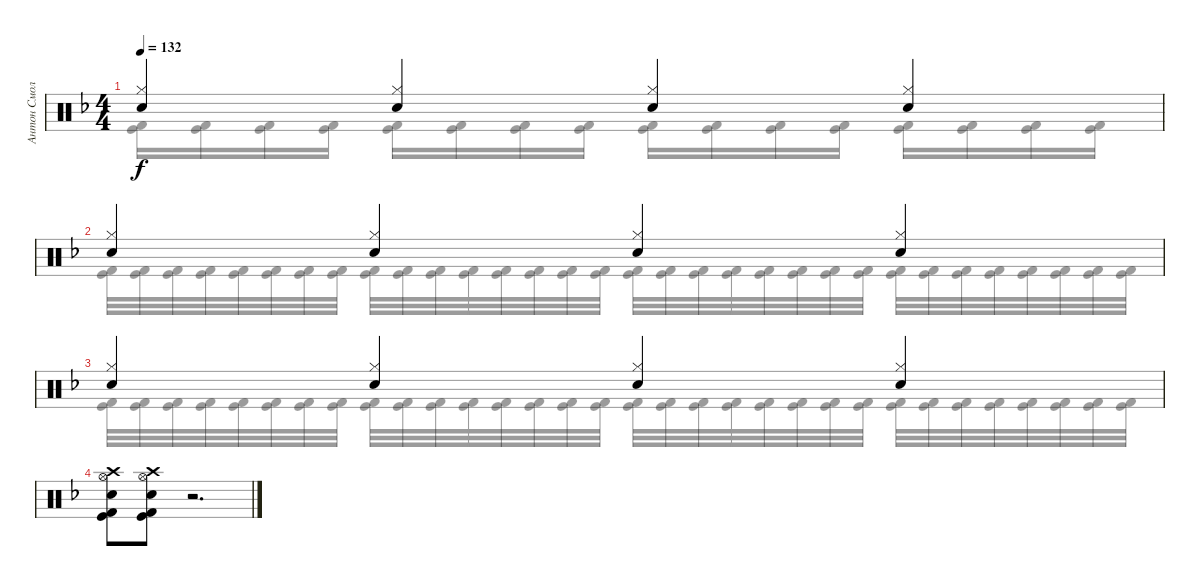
\track ("Антон Смольянин" "Антон Смол") {instrument percussion}
\staff {score}
\articulation defaults
\voice
\ts (4 4)
\tempo 132
\clef neutral
\ks f
("Hi-Hat (closed)" "Snare (hit) 2").4{dy f} ("Hi-Hat (closed)" "Snare (hit) 2").4 ("Hi-Hat (closed)" "Snare (hit) 2").4 ("Hi-Hat (closed)" "Snare (hit) 2").4 |
("Hi-Hat (closed)" "Snare (hit) 2").4 ("Hi-Hat (closed)" "Snare (hit) 2").4 ("Hi-Hat (closed)" "Snare (hit) 2").4 ("Hi-Hat (closed)" "Snare (hit) 2").4 |
("Hi-Hat (closed)" "Snare (hit) 2").4 ("Hi-Hat (closed)" "Snare (hit) 2").4 ("Hi-Hat (closed)" "Snare (hit) 2").4 ("Hi-Hat (closed)" "Snare (hit) 2").4 |
("Kick (hit) 2" "Kick (hit)" "Snare (hit) 2" "Crash high (hit)" "Hi-Hat (open)").8 ("Kick (hit) 2" "Kick (hit)" "Snare (hit) 2" "Crash high (hit)" "Hi-Hat (open)").8 r.2{d}
\voice
\clef neutral
\ottava regular
\simile none
\ks f
("Kick (hit) 2" "Kick (hit)").16{dy f} ("Kick (hit) 2" "Kick (hit)").16 ("Kick (hit) 2" "Kick (hit)").16 ("Kick (hit) 2" "Kick (hit)").16 ("Kick (hit) 2" "Kick (hit)").16 ("Kick (hit) 2" "Kick (hit)").16 ("Kick (hit) 2" "Kick (hit)").16 ("Kick (hit) 2" "Kick (hit)").16 ("Kick (hit) 2" "Kick (hit)").16 ("Kick (hit) 2" "Kick (hit)").16 ("Kick (hit) 2" "Kick (hit)").16 ("Kick (hit) 2" "Kick (hit)").16 ("Kick (hit) 2" "Kick (hit)").16 ("Kick (hit) 2" "Kick (hit)").16 ("Kick (hit) 2" "Kick (hit)").16 ("Kick (hit) 2" "Kick (hit)").16 |
("Kick (hit) 2" "Kick (hit)").32 ("Kick (hit) 2" "Kick (hit)").32 ("Kick (hit) 2" "Kick (hit)").32 ("Kick (hit) 2" "Kick (hit)").32 ("Kick (hit) 2" "Kick (hit)").32 ("Kick (hit) 2" "Kick (hit)").32 ("Kick (hit) 2" "Kick (hit)").32 ("Kick (hit) 2" "Kick (hit)").32 ("Kick (hit) 2" "Kick (hit)").32 ("Kick (hit) 2" "Kick (hit)").32 ("Kick (hit) 2" "Kick (hit)").32 ("Kick (hit) 2" "Kick (hit)").32 ("Kick (hit) 2" "Kick (hit)").32 ("Kick (hit) 2" "Kick (hit)").32 ("Kick (hit) 2" "Kick (hit)").32 ("Kick (hit) 2" "Kick (hit)").32 ("Kick (hit) 2" "Kick (hit)").32 ("Kick (hit) 2" "Kick (hit)").32 ("Kick (hit) 2" "Kick (hit)").32 ("Kick (hit) 2" "Kick (hit)").32 ("Kick (hit) 2" "Kick (hit)").32 ("Kick (hit) 2" "Kick (hit)").32 ("Kick (hit) 2" "Kick (hit)").32 ("Kick (hit) 2" "Kick (hit)").32 ("Kick (hit) 2" "Kick (hit)").32 ("Kick (hit) 2" "Kick (hit)").32 ("Kick (hit) 2" "Kick (hit)").32 ("Kick (hit) 2" "Kick (hit)").32 ("Kick (hit) 2" "Kick (hit)").32 ("Kick (hit) 2" "Kick (hit)").32 ("Kick (hit) 2" "Kick (hit)").32 ("Kick (hit) 2" "Kick (hit)").32 |
("Kick (hit) 2" "Kick (hit)").32 ("Kick (hit) 2" "Kick (hit)").32 ("Kick (hit) 2" "Kick (hit)").32 ("Kick (hit) 2" "Kick (hit)").32 ("Kick (hit) 2" "Kick (hit)").32 ("Kick (hit) 2" "Kick (hit)").32 ("Kick (hit) 2" "Kick (hit)").32 ("Kick (hit) 2" "Kick (hit)").32 ("Kick (hit) 2" "Kick (hit)").32 ("Kick (hit) 2" "Kick (hit)").32 ("Kick (hit) 2" "Kick (hit)").32 ("Kick (hit) 2" "Kick (hit)").32 ("Kick (hit) 2" "Kick (hit)").32 ("Kick (hit) 2" "Kick (hit)").32 ("Kick (hit) 2" "Kick (hit)").32 ("Kick (hit) 2" "Kick (hit)").32 ("Kick (hit) 2" "Kick (hit)").32 ("Kick (hit) 2" "Kick (hit)").32 ("Kick (hit) 2" "Kick (hit)").32 ("Kick (hit) 2" "Kick (hit)").32 ("Kick (hit) 2" "Kick (hit)").32 ("Kick (hit) 2" "Kick (hit)").32 ("Kick (hit) 2" "Kick (hit)").32 ("Kick (hit) 2" "Kick (hit)").32 ("Kick (hit) 2" "Kick (hit)").32 ("Kick (hit) 2" "Kick (hit)").32 ("Kick (hit) 2" "Kick (hit)").32 ("Kick (hit) 2" "Kick (hit)").32 ("Kick (hit) 2" "Kick (hit)").32 ("Kick (hit) 2" "Kick (hit)").32 ("Kick (hit) 2" "Kick (hit)").32 ("Kick (hit) 2" "Kick (hit)").32 |
